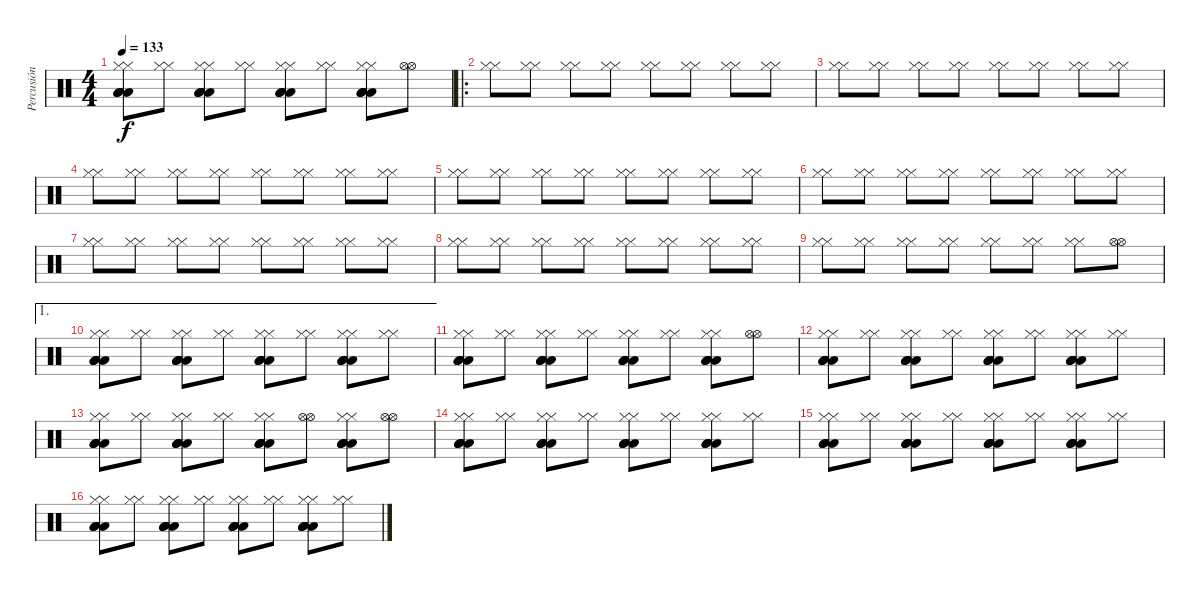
\track ("Percusión" "Percusión") {instrument percussion}
\staff {score}
\articulation defaults
\ts (4 4)
\tempo 133
\clef neutral
\ks c
("Hi-Hat (closed)" "Hi-Hat (closed)" "Low Tom (hit)" "Low Tom (hit)" "Low Tom (hit)" "Low Tom (hit)").8{dy f} ("Hi-Hat (closed)" "Hi-Hat (closed)").8 ("Hi-Hat (closed)" "Hi-Hat (closed)" "Low Tom (hit)" "Low Tom (hit)" "Low Tom (hit)" "Low Tom (hit)").8 ("Hi-Hat (closed)" "Hi-Hat (closed)").8 ("Hi-Hat (closed)" "Hi-Hat (closed)" "Low Tom (hit)" "Low Tom (hit)" "Low Tom (hit)" "Low Tom (hit)").8 ("Hi-Hat (closed)" "Hi-Hat (closed)").8 ("Hi-Hat (closed)" "Hi-Hat (closed)" "Low Tom (hit)" "Low Tom (hit)" "Low Tom (hit)" "Low Tom (hit)").8 ("Hi-Hat (open)" "Hi-Hat (open)").8 |
\ro
("Hi-Hat (closed)" "Hi-Hat (closed)").8 ("Hi-Hat (closed)" "Hi-Hat (closed)").8 ("Hi-Hat (closed)" "Hi-Hat (closed)").8 ("Hi-Hat (closed)" "Hi-Hat (closed)").8 ("Hi-Hat (closed)" "Hi-Hat (closed)").8 ("Hi-Hat (closed)" "Hi-Hat (closed)").8 ("Hi-Hat (closed)" "Hi-Hat (closed)").8 ("Hi-Hat (closed)" "Hi-Hat (closed)").8 |
("Hi-Hat (closed)" "Hi-Hat (closed)").8 ("Hi-Hat (closed)" "Hi-Hat (closed)").8 ("Hi-Hat (closed)" "Hi-Hat (closed)").8 ("Hi-Hat (closed)" "Hi-Hat (closed)").8 ("Hi-Hat (closed)" "Hi-Hat (closed)").8 ("Hi-Hat (closed)" "Hi-Hat (closed)").8 ("Hi-Hat (closed)" "Hi-Hat (closed)").8 ("Hi-Hat (closed)" "Hi-Hat (closed)").8 |
("Hi-Hat (closed)" "Hi-Hat (closed)").8 ("Hi-Hat (closed)" "Hi-Hat (closed)").8 ("Hi-Hat (closed)" "Hi-Hat (closed)").8 ("Hi-Hat (closed)" "Hi-Hat (closed)").8 ("Hi-Hat (closed)" "Hi-Hat (closed)").8 ("Hi-Hat (closed)" "Hi-Hat (closed)").8 ("Hi-Hat (closed)" "Hi-Hat (closed)").8 ("Hi-Hat (closed)" "Hi-Hat (closed)").8 |
("Hi-Hat (closed)" "Hi-Hat (closed)").8 ("Hi-Hat (closed)" "Hi-Hat (closed)").8 ("Hi-Hat (closed)" "Hi-Hat (closed)").8 ("Hi-Hat (closed)" "Hi-Hat (closed)").8 ("Hi-Hat (closed)" "Hi-Hat (closed)").8 ("Hi-Hat (closed)" "Hi-Hat (closed)").8 ("Hi-Hat (closed)" "Hi-Hat (closed)").8 ("Hi-Hat (closed)" "Hi-Hat (closed)").8 |
("Hi-Hat (closed)" "Hi-Hat (closed)").8 ("Hi-Hat (closed)" "Hi-Hat (closed)").8 ("Hi-Hat (closed)" "Hi-Hat (closed)").8 ("Hi-Hat (closed)" "Hi-Hat (closed)").8 ("Hi-Hat (closed)" "Hi-Hat (closed)").8 ("Hi-Hat (closed)" "Hi-Hat (closed)").8 ("Hi-Hat (closed)" "Hi-Hat (closed)").8 ("Hi-Hat (closed)" "Hi-Hat (closed)").8 |
("Hi-Hat (closed)" "Hi-Hat (closed)").8 ("Hi-Hat (closed)" "Hi-Hat (closed)").8 ("Hi-Hat (closed)" "Hi-Hat (closed)").8 ("Hi-Hat (closed)" "Hi-Hat (closed)").8 ("Hi-Hat (closed)" "Hi-Hat (closed)").8 ("Hi-Hat (closed)" "Hi-Hat (closed)").8 ("Hi-Hat (closed)" "Hi-Hat (closed)").8 ("Hi-Hat (closed)" "Hi-Hat (closed)").8 |
("Hi-Hat (closed)" "Hi-Hat (closed)").8 ("Hi-Hat (closed)" "Hi-Hat (closed)").8 ("Hi-Hat (closed)" "Hi-Hat (closed)").8 ("Hi-Hat (closed)" "Hi-Hat (closed)").8 ("Hi-Hat (closed)" "Hi-Hat (closed)").8 ("Hi-Hat (closed)" "Hi-Hat (closed)").8 ("Hi-Hat (closed)" "Hi-Hat (closed)").8 ("Hi-Hat (closed)" "Hi-Hat (closed)").8 |
("Hi-Hat (closed)" "Hi-Hat (closed)").8 ("Hi-Hat (closed)" "Hi-Hat (closed)").8 ("Hi-Hat (closed)" "Hi-Hat (closed)").8 ("Hi-Hat (closed)" "Hi-Hat (closed)").8 ("Hi-Hat (closed)" "Hi-Hat (closed)").8 ("Hi-Hat (closed)" "Hi-Hat (closed)").8 ("Hi-Hat (closed)" "Hi-Hat (closed)").8 ("Hi-Hat (open)" "Hi-Hat (open)").8 |
\ae 1
("Hi-Hat (closed)" "Hi-Hat (closed)" "Low Tom (hit)" "Low Tom (hit)" "Low Tom (hit)" "Low Tom (hit)").8 ("Hi-Hat (closed)" "Hi-Hat (closed)").8 ("Hi-Hat (closed)" "Hi-Hat (closed)" "Low Tom (hit)" "Low Tom (hit)" "Low Tom (hit)" "Low Tom (hit)").8 ("Hi-Hat (closed)" "Hi-Hat (closed)").8 ("Hi-Hat (closed)" "Hi-Hat (closed)" "Low Tom (hit)" "Low Tom (hit)" "Low Tom (hit)" "Low Tom (hit)").8 ("Hi-Hat (closed)" "Hi-Hat (closed)").8 ("Hi-Hat (closed)" "Hi-Hat (closed)" "Low Tom (hit)" "Low Tom (hit)" "Low Tom (hit)" "Low Tom (hit)").8 ("Hi-Hat (closed)" "Hi-Hat (closed)").8 |
("Hi-Hat (closed)" "Hi-Hat (closed)" "Low Tom (hit)" "Low Tom (hit)" "Low Tom (hit)" "Low Tom (hit)").8 ("Hi-Hat (closed)" "Hi-Hat (closed)").8 ("Hi-Hat (closed)" "Hi-Hat (closed)" "Low Tom (hit)" "Low Tom (hit)" "Low Tom (hit)" "Low Tom (hit)").8 ("Hi-Hat (closed)" "Hi-Hat (closed)").8 ("Hi-Hat (closed)" "Hi-Hat (closed)" "Low Tom (hit)" "Low Tom (hit)" "Low Tom (hit)" "Low Tom (hit)").8 ("Hi-Hat (closed)" "Hi-Hat (closed)").8 ("Hi-Hat (closed)" "Hi-Hat (closed)" "Low Tom (hit)" "Low Tom (hit)" "Low Tom (hit)" "Low Tom (hit)").8 ("Hi-Hat (open)" "Hi-Hat (open)").8 |
("Hi-Hat (closed)" "Hi-Hat (closed)" "Low Tom (hit)" "Low Tom (hit)" "Low Tom (hit)" "Low Tom (hit)").8 ("Hi-Hat (closed)" "Hi-Hat (closed)").8 ("Hi-Hat (closed)" "Hi-Hat (closed)" "Low Tom (hit)" "Low Tom (hit)" "Low Tom (hit)" "Low Tom (hit)").8 ("Hi-Hat (closed)" "Hi-Hat (closed)").8 ("Hi-Hat (closed)" "Hi-Hat (closed)" "Low Tom (hit)" "Low Tom (hit)" "Low Tom (hit)" "Low Tom (hit)").8 ("Hi-Hat (closed)" "Hi-Hat (closed)").8 ("Hi-Hat (closed)" "Hi-Hat (closed)" "Low Tom (hit)" "Low Tom (hit)" "Low Tom (hit)" "Low Tom (hit)").8 ("Hi-Hat (closed)" "Hi-Hat (closed)").8 |
("Hi-Hat (closed)" "Hi-Hat (closed)" "Low Tom (hit)" "Low Tom (hit)" "Low Tom (hit)" "Low Tom (hit)").8 ("Hi-Hat (closed)" "Hi-Hat (closed)").8 ("Hi-Hat (closed)" "Hi-Hat (closed)" "Low Tom (hit)" "Low Tom (hit)" "Low Tom (hit)" "Low Tom (hit)").8 ("Hi-Hat (closed)" "Hi-Hat (closed)").8 ("Hi-Hat (closed)" "Hi-Hat (closed)" "Low Tom (hit)" "Low Tom (hit)" "Low Tom (hit)" "Low Tom (hit)").8 ("Hi-Hat (open)" "Hi-Hat (open)").8 ("Hi-Hat (closed)" "Hi-Hat (closed)" "Low Tom (hit)" "Low Tom (hit)" "Low Tom (hit)" "Low Tom (hit)").8 ("Hi-Hat (open)" "Hi-Hat (open)").8 |
("Hi-Hat (closed)" "Hi-Hat (closed)" "Low Tom (hit)" "Low Tom (hit)" "Low Tom (hit)" "Low Tom (hit)").8 ("Hi-Hat (closed)" "Hi-Hat (closed)").8 ("Hi-Hat (closed)" "Hi-Hat (closed)" "Low Tom (hit)" "Low Tom (hit)" "Low Tom (hit)" "Low Tom (hit)").8 ("Hi-Hat (closed)" "Hi-Hat (closed)").8 ("Hi-Hat (closed)" "Hi-Hat (closed)" "Low Tom (hit)" "Low Tom (hit)" "Low Tom (hit)" "Low Tom (hit)").8 ("Hi-Hat (closed)" "Hi-Hat (closed)").8 ("Hi-Hat (closed)" "Hi-Hat (closed)" "Low Tom (hit)" "Low Tom (hit)" "Low Tom (hit)" "Low Tom (hit)").8 ("Hi-Hat (closed)" "Hi-Hat (closed)").8 |
("Hi-Hat (closed)" "Hi-Hat (closed)" "Low Tom (hit)" "Low Tom (hit)" "Low Tom (hit)" "Low Tom (hit)").8 ("Hi-Hat (closed)" "Hi-Hat (closed)").8 ("Hi-Hat (closed)" "Hi-Hat (closed)" "Low Tom (hit)" "Low Tom (hit)" "Low Tom (hit)" "Low Tom (hit)").8 ("Hi-Hat (closed)" "Hi-Hat (closed)").8 ("Hi-Hat (closed)" "Hi-Hat (closed)" "Low Tom (hit)" "Low Tom (hit)" "Low Tom (hit)" "Low Tom (hit)").8 ("Hi-Hat (closed)" "Hi-Hat (closed)").8 ("Hi-Hat (closed)" "Hi-Hat (closed)" "Low Tom (hit)" "Low Tom (hit)" "Low Tom (hit)" "Low Tom (hit)").8 ("Hi-Hat (closed)" "Hi-Hat (closed)").8 |
("Hi-Hat (closed)" "Hi-Hat (closed)" "Low Tom (hit)" "Low Tom (hit)" "Low Tom (hit)" "Low Tom (hit)").8 ("Hi-Hat (closed)" "Hi-Hat (closed)").8 ("Hi-Hat (closed)" "Hi-Hat (closed)" "Low Tom (hit)" "Low Tom (hit)" "Low Tom (hit)" "Low Tom (hit)").8 ("Hi-Hat (closed)" "Hi-Hat (closed)").8 ("Hi-Hat (closed)" "Hi-Hat (closed)" "Low Tom (hit)" "Low Tom (hit)" "Low Tom (hit)" "Low Tom (hit)").8 ("Hi-Hat (closed)" "Hi-Hat (closed)").8 ("Hi-Hat (closed)" "Hi-Hat (closed)" "Low Tom (hit)" "Low Tom (hit)" "Low Tom (hit)" "Low Tom (hit)").8 ("Hi-Hat (closed)" "Hi-Hat (closed)").8
